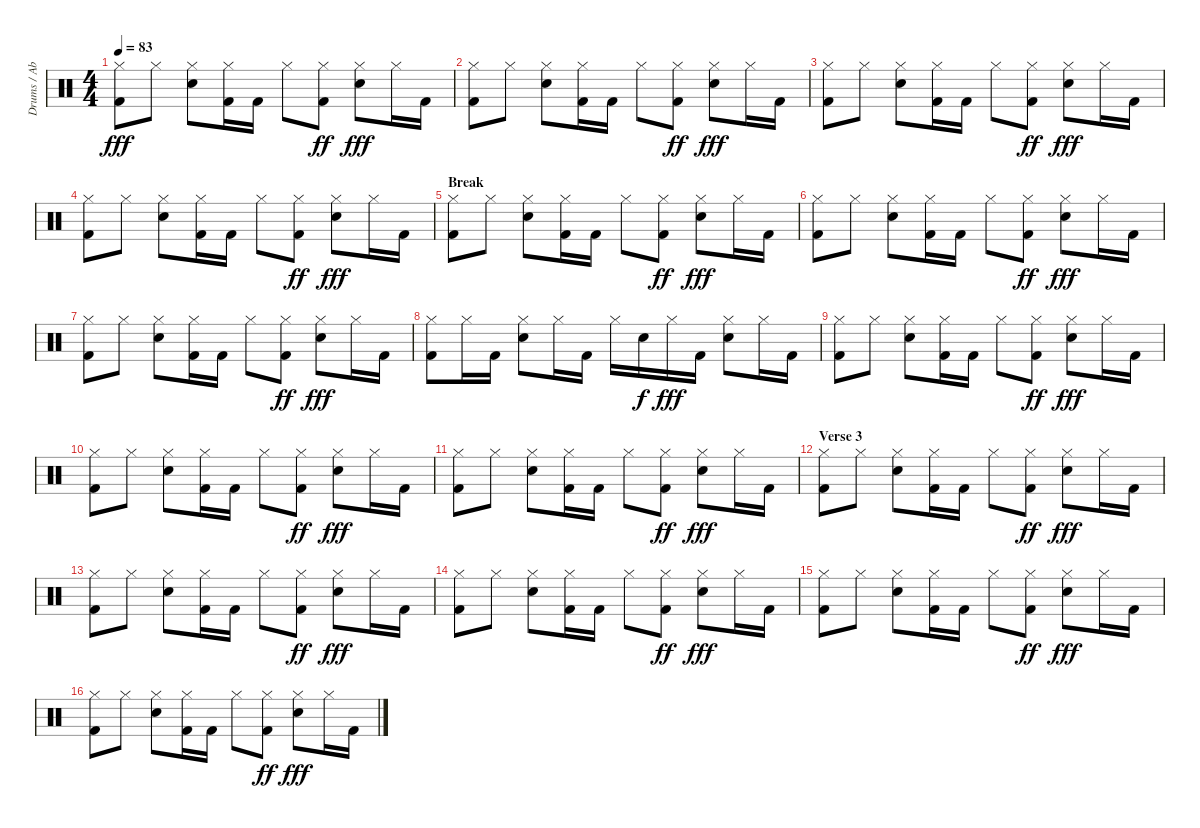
\track ("Drums / Abe Cunningham" "Drums / Ab") {instrument percussion}
\staff {score}
\articulation defaults
\ts (4 4)
\tempo 83
\clef neutral
\ks c
("Hi-Hat (closed)" "Kick (hit) 2").8{dy fff} "Hi-Hat (closed)".8 ("Hi-Hat (closed)" "Electric Snare (hit)").8 ("Hi-Hat (closed)" "Kick (hit) 2").16 "Kick (hit) 2".16 "Hi-Hat (closed)".8 ("Hi-Hat (closed)" "Kick (hit) 2").8{dy ff} ("Hi-Hat (closed)" "Electric Snare (hit)").8{dy fff} "Hi-Hat (closed)".16 "Kick (hit) 2".16 |
("Hi-Hat (closed)" "Kick (hit) 2").8 "Hi-Hat (closed)".8 ("Hi-Hat (closed)" "Electric Snare (hit)").8 ("Hi-Hat (closed)" "Kick (hit) 2").16 "Kick (hit) 2".16 "Hi-Hat (closed)".8 ("Hi-Hat (closed)" "Kick (hit) 2").8{dy ff} ("Hi-Hat (closed)" "Electric Snare (hit)").8{dy fff} "Hi-Hat (closed)".16 "Kick (hit) 2".16 |
("Hi-Hat (closed)" "Kick (hit) 2").8 "Hi-Hat (closed)".8 ("Hi-Hat (closed)" "Electric Snare (hit)").8 ("Hi-Hat (closed)" "Kick (hit) 2").16 "Kick (hit) 2".16 "Hi-Hat (closed)".8 ("Hi-Hat (closed)" "Kick (hit) 2").8{dy ff} ("Hi-Hat (closed)" "Electric Snare (hit)").8{dy fff} "Hi-Hat (closed)".16 "Kick (hit) 2".16 |
("Hi-Hat (closed)" "Kick (hit) 2").8 "Hi-Hat (closed)".8 ("Hi-Hat (closed)" "Electric Snare (hit)").8 ("Hi-Hat (closed)" "Kick (hit) 2").16 "Kick (hit) 2".16 "Hi-Hat (closed)".8 ("Hi-Hat (closed)" "Kick (hit) 2").8{dy ff} ("Hi-Hat (closed)" "Electric Snare (hit)").8{dy fff} "Hi-Hat (closed)".16 "Kick (hit) 2".16 |
\section ("" "Break")
("Hi-Hat (closed)" "Kick (hit) 2").8 "Hi-Hat (closed)".8 ("Hi-Hat (closed)" "Electric Snare (hit)").8 ("Hi-Hat (closed)" "Kick (hit) 2").16 "Kick (hit) 2".16 "Hi-Hat (closed)".8 ("Hi-Hat (closed)" "Kick (hit) 2").8{dy ff} ("Hi-Hat (closed)" "Electric Snare (hit)").8{dy fff} "Hi-Hat (closed)".16 "Kick (hit) 2".16 |
("Hi-Hat (closed)" "Kick (hit) 2").8 "Hi-Hat (closed)".8 ("Hi-Hat (closed)" "Electric Snare (hit)").8 ("Hi-Hat (closed)" "Kick (hit) 2").16 "Kick (hit) 2".16 "Hi-Hat (closed)".8 ("Hi-Hat (closed)" "Kick (hit) 2").8{dy ff} ("Hi-Hat (closed)" "Electric Snare (hit)").8{dy fff} "Hi-Hat (closed)".16 "Kick (hit) 2".16 |
("Hi-Hat (closed)" "Kick (hit) 2").8 "Hi-Hat (closed)".8 ("Hi-Hat (closed)" "Electric Snare (hit)").8 ("Hi-Hat (closed)" "Kick (hit) 2").16 "Kick (hit) 2".16 "Hi-Hat (closed)".8 ("Hi-Hat (closed)" "Kick (hit) 2").8{dy ff} ("Hi-Hat (closed)" "Electric Snare (hit)").8{dy fff} "Hi-Hat (closed)".16 "Kick (hit) 2".16 |
("Hi-Hat (closed)" "Kick (hit) 2").8 "Hi-Hat (closed)".16 "Kick (hit) 2".16 ("Hi-Hat (closed)" "Electric Snare (hit)").8 "Hi-Hat (closed)".16 "Kick (hit) 2".16 "Hi-Hat (closed)".16 "Electric Snare (hit)".16{dy f} "Hi-Hat (closed)".16{dy fff} "Kick (hit) 2".16 ("Hi-Hat (closed)" "Electric Snare (hit)").8 "Hi-Hat (closed)".16 "Kick (hit) 2".16 |
("Hi-Hat (closed)" "Kick (hit) 2").8 "Hi-Hat (closed)".8 ("Hi-Hat (closed)" "Electric Snare (hit)").8 ("Hi-Hat (closed)" "Kick (hit) 2").16 "Kick (hit) 2".16 "Hi-Hat (closed)".8 ("Hi-Hat (closed)" "Kick (hit) 2").8{dy ff} ("Hi-Hat (closed)" "Electric Snare (hit)").8{dy fff} "Hi-Hat (closed)".16 "Kick (hit) 2".16 |
("Hi-Hat (closed)" "Kick (hit) 2").8 "Hi-Hat (closed)".8 ("Hi-Hat (closed)" "Electric Snare (hit)").8 ("Hi-Hat (closed)" "Kick (hit) 2").16 "Kick (hit) 2".16 "Hi-Hat (closed)".8 ("Hi-Hat (closed)" "Kick (hit) 2").8{dy ff} ("Hi-Hat (closed)" "Electric Snare (hit)").8{dy fff} "Hi-Hat (closed)".16 "Kick (hit) 2".16 |
("Hi-Hat (closed)" "Kick (hit) 2").8 "Hi-Hat (closed)".8 ("Hi-Hat (closed)" "Electric Snare (hit)").8 ("Hi-Hat (closed)" "Kick (hit) 2").16 "Kick (hit) 2".16 "Hi-Hat (closed)".8 ("Hi-Hat (closed)" "Kick (hit) 2").8{dy ff} ("Hi-Hat (closed)" "Electric Snare (hit)").8{dy fff} "Hi-Hat (closed)".16 "Kick (hit) 2".16 |
\section ("" "Verse 3")
("Hi-Hat (closed)" "Kick (hit) 2").8 "Hi-Hat (closed)".8 ("Hi-Hat (closed)" "Electric Snare (hit)").8 ("Hi-Hat (closed)" "Kick (hit) 2").16 "Kick (hit) 2".16 "Hi-Hat (closed)".8 ("Hi-Hat (closed)" "Kick (hit) 2").8{dy ff} ("Hi-Hat (closed)" "Electric Snare (hit)").8{dy fff} "Hi-Hat (closed)".16 "Kick (hit) 2".16 |
("Hi-Hat (closed)" "Kick (hit) 2").8 "Hi-Hat (closed)".8 ("Hi-Hat (closed)" "Electric Snare (hit)").8 ("Hi-Hat (closed)" "Kick (hit) 2").16 "Kick (hit) 2".16 "Hi-Hat (closed)".8 ("Hi-Hat (closed)" "Kick (hit) 2").8{dy ff} ("Hi-Hat (closed)" "Electric Snare (hit)").8{dy fff} "Hi-Hat (closed)".16 "Kick (hit) 2".16 |
("Hi-Hat (closed)" "Kick (hit) 2").8 "Hi-Hat (closed)".8 ("Hi-Hat (closed)" "Electric Snare (hit)").8 ("Hi-Hat (closed)" "Kick (hit) 2").16 "Kick (hit) 2".16 "Hi-Hat (closed)".8 ("Hi-Hat (closed)" "Kick (hit) 2").8{dy ff} ("Hi-Hat (closed)" "Electric Snare (hit)").8{dy fff} "Hi-Hat (closed)".16 "Kick (hit) 2".16 |
("Hi-Hat (closed)" "Kick (hit) 2").8 "Hi-Hat (closed)".8 ("Hi-Hat (closed)" "Electric Snare (hit)").8 ("Hi-Hat (closed)" "Kick (hit) 2").16 "Kick (hit) 2".16 "Hi-Hat (closed)".8 ("Hi-Hat (closed)" "Kick (hit) 2").8{dy ff} ("Hi-Hat (closed)" "Electric Snare (hit)").8{dy fff} "Hi-Hat (closed)".16 "Kick (hit) 2".16 |
("Hi-Hat (closed)" "Kick (hit) 2").8 "Hi-Hat (closed)".8 ("Hi-Hat (closed)" "Electric Snare (hit)").8 ("Hi-Hat (closed)" "Kick (hit) 2").16 "Kick (hit) 2".16 "Hi-Hat (closed)".8 ("Hi-Hat (closed)" "Kick (hit) 2").8{dy ff} ("Hi-Hat (closed)" "Electric Snare (hit)").8{dy fff} "Hi-Hat (closed)".16 "Kick (hit) 2".16
